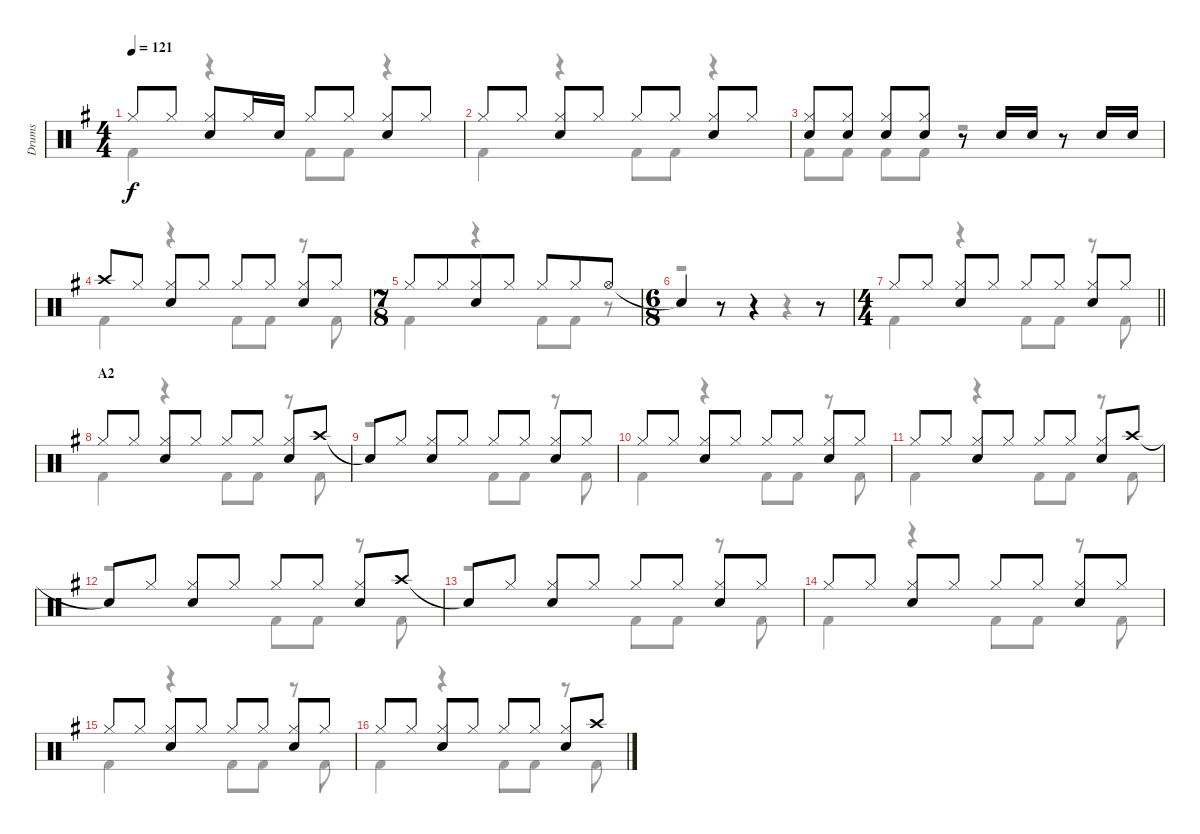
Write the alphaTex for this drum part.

\track ("Drums" "Drums") {instrument percussion}
\staff {score}
\articulation defaults
\voice
\ts (4 4)
\tempo 121
\clef neutral
\ks g "Hi-Hat (closed)".8{dy f} "Hi-Hat (closed)".8
("Hi-Hat (closed)" "Snare (hit) 2").8 "Hi-Hat (closed)".16 "Snare (hit) 2".16 "Hi-Hat (closed)".8 "Hi-Hat (closed)".8 ("Hi-Hat (closed)" "Snare (hit) 2").8 "Hi-Hat (closed)".8 |
"Hi-Hat (closed)".8 "Hi-Hat (closed)".8 ("Hi-Hat (closed)" "Snare (hit) 2").8 "Hi-Hat (closed)".8 "Hi-Hat (closed)".8 "Hi-Hat (closed)".8 ("Hi-Hat (closed)" "Snare (hit) 2").8 "Hi-Hat (closed)".8 |
("Hi-Hat (closed)" "Snare (hit) 2").8 ("Hi-Hat (closed)" "Snare (hit) 2").8 ("Hi-Hat (closed)" "Snare (hit) 2").8 ("Hi-Hat (closed)" "Snare (hit) 2").8 r.8 "Snare (hit) 2".16 "Snare (hit) 2".16 r.8 "Snare (hit) 2".16 "Snare (hit) 2".16 |
"Crash high (hit)".8 "Hi-Hat (closed)".8 ("Hi-Hat (closed)" "Snare (hit) 2").8 "Hi-Hat (closed)".8 "Hi-Hat (closed)".8 "Hi-Hat (closed)".8 ("Hi-Hat (closed)" "Snare (hit) 2").8 "Hi-Hat (closed)".8 |
\ts (7 8)
"Hi-Hat (closed)".8 "Hi-Hat (closed)".8 ("Hi-Hat (closed)" "Snare (hit) 2").8 "Hi-Hat (closed)".8 "Hi-Hat (closed)".8 "Hi-Hat (closed)".8 "Hi-Hat (open)".8 |
\ts (6 8)
"Snare (hit)"{t}.4 r.8 r.4 r.8 |
\ts (4 4)
\barLineRight lightlight "Hi-Hat (closed)".8 "Hi-Hat (closed)".8
("Hi-Hat (closed)" "Snare (hit) 2").8 "Hi-Hat (closed)".8 "Hi-Hat (closed)".8 "Hi-Hat (closed)".8 ("Hi-Hat (closed)" "Snare (hit) 2").8 "Hi-Hat (closed)".8 |
\section ("" "A2")
"Hi-Hat (closed)".8 "Hi-Hat (closed)".8 ("Hi-Hat (closed)" "Snare (hit) 2").8 "Hi-Hat (closed)".8 "Hi-Hat (closed)".8 "Hi-Hat (closed)".8 ("Hi-Hat (closed)" "Snare (hit) 2").8 "Crash high (hit)".8 |
"Snare (hit)"{t}.8 "Hi-Hat (closed)".8 ("Hi-Hat (closed)" "Snare (hit) 2").8 "Hi-Hat (closed)".8 "Hi-Hat (closed)".8 "Hi-Hat (closed)".8 ("Hi-Hat (closed)" "Snare (hit) 2").8 "Hi-Hat (closed)".8 |
"Hi-Hat (closed)".8 "Hi-Hat (closed)".8 ("Hi-Hat (closed)" "Snare (hit) 2").8 "Hi-Hat (closed)".8 "Hi-Hat (closed)".8 "Hi-Hat (closed)".8 ("Hi-Hat (closed)" "Snare (hit) 2").8 "Hi-Hat (closed)".8 |
"Hi-Hat (closed)".8 "Hi-Hat (closed)".8 ("Hi-Hat (closed)" "Snare (hit) 2").8 "Hi-Hat (closed)".8 "Hi-Hat (closed)".8 "Hi-Hat (closed)".8 ("Hi-Hat (closed)" "Snare (hit) 2").8 "Crash high (hit)".8 |
"Snare (hit)"{t}.8 "Hi-Hat (closed)".8 ("Hi-Hat (closed)" "Snare (hit) 2").8 "Hi-Hat (closed)".8 "Hi-Hat (closed)".8 "Hi-Hat (closed)".8 ("Hi-Hat (closed)" "Snare (hit) 2").8 "Crash high (hit)".8 |
"Snare (hit)"{t}.8 "Hi-Hat (closed)".8 ("Hi-Hat (closed)" "Snare (hit) 2").8 "Hi-Hat (closed)".8 "Hi-Hat (closed)".8 "Hi-Hat (closed)".8 ("Hi-Hat (closed)" "Snare (hit) 2").8 "Hi-Hat (closed)".8 |
"Hi-Hat (closed)".8 "Hi-Hat (closed)".8 ("Hi-Hat (closed)" "Snare (hit) 2").8 "Hi-Hat (closed)".8 "Hi-Hat (closed)".8 "Hi-Hat (closed)".8 ("Hi-Hat (closed)" "Snare (hit) 2").8 "Hi-Hat (closed)".8 |
"Hi-Hat (closed)".8 "Hi-Hat (closed)".8 ("Hi-Hat (closed)" "Snare (hit) 2").8 "Hi-Hat (closed)".8 "Hi-Hat (closed)".8 "Hi-Hat (closed)".8 ("Hi-Hat (closed)" "Snare (hit) 2").8 "Hi-Hat (closed)".8 |
"Hi-Hat (closed)".8 "Hi-Hat (closed)".8 ("Hi-Hat (closed)" "Snare (hit) 2").8 "Hi-Hat (closed)".8 "Hi-Hat (closed)".8 "Hi-Hat (closed)".8 ("Hi-Hat (closed)" "Snare (hit) 2").8 "Crash high (hit)".8
\voice
\clef neutral
\ottava regular
\simile none
\ks g "Kick (hit) 2".4{dy f}
r.4 "Kick (hit) 2".8 "Kick (hit) 2".8 r.4 |
"Kick (hit) 2".4 r.4 "Kick (hit) 2".8 "Kick (hit) 2".8 r.4 |
"Kick (hit) 2".8 "Kick (hit) 2".8 "Kick (hit) 2".8 "Kick (hit) 2".8 r.2 |
"Kick (hit) 2".4 r.4 "Kick (hit) 2".8 "Kick (hit) 2".8 r.8 "Kick (hit) 2".8 |
"Kick (hit) 2".4 r.4 "Kick (hit) 2".8 "Kick (hit) 2".8 r.8 |
r.2 r.4 |
\barLineRight lightlight "Kick (hit) 2".4
r.4 "Kick (hit) 2".8 "Kick (hit) 2".8 r.8 "Kick (hit) 2".8 |
"Kick (hit) 2".4 r.4 "Kick (hit) 2".8 "Kick (hit) 2".8 r.8 "Kick (hit) 2".8 |
r.2 "Kick (hit) 2".8 "Kick (hit) 2".8 r.8 "Kick (hit) 2".8 |
"Kick (hit) 2".4 r.4 "Kick (hit) 2".8 "Kick (hit) 2".8 r.8 "Kick (hit) 2".8 |
"Kick (hit) 2".4 r.4 "Kick (hit) 2".8 "Kick (hit) 2".8 r.8 "Kick (hit) 2".8 |
r.2 "Kick (hit) 2".8 "Kick (hit) 2".8 r.8 "Kick (hit) 2".8 |
r.2 "Kick (hit) 2".8 "Kick (hit) 2".8 r.8 "Kick (hit) 2".8 |
"Kick (hit) 2".4 r.4 "Kick (hit) 2".8 "Kick (hit) 2".8 r.8 "Kick (hit) 2".8 |
"Kick (hit) 2".4 r.4 "Kick (hit) 2".8 "Kick (hit) 2".8 r.8 "Kick (hit) 2".8 |
"Kick (hit) 2".4 r.4 "Kick (hit) 2".8 "Kick (hit) 2".8 r.8 "Kick (hit) 2".8
